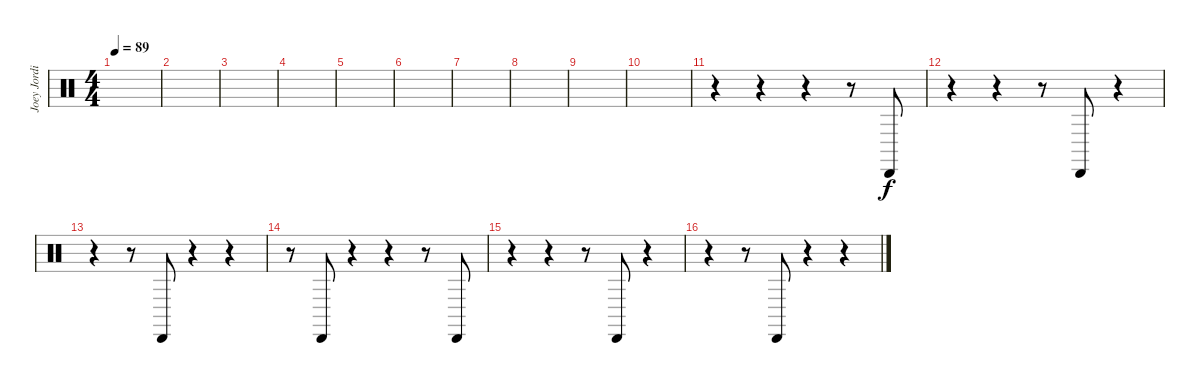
\track ("Joey Jordison" "Joey Jordi") {instrument percussion}
\staff {score}
\articulation defaults
\ts (4 4)
\tempo 89
\clef neutral
\ks c
|
|
|
|
|
|
|
|
|
|
r.4 r.4 r.4 r.8 "Cabasa (hit)".8 |
r.4 r.4 r.8 "Cabasa (hit)".8 r.4 |
r.4 r.8 "Cabasa (hit)".8 r.4 r.4 |
r.8 "Cabasa (hit)".8 r.4 r.4 r.8 "Cabasa (hit)".8 |
r.4 r.4 r.8 "Cabasa (hit)".8 r.4 |
r.4 r.8 "Cabasa (hit)".8 r.4 r.4
